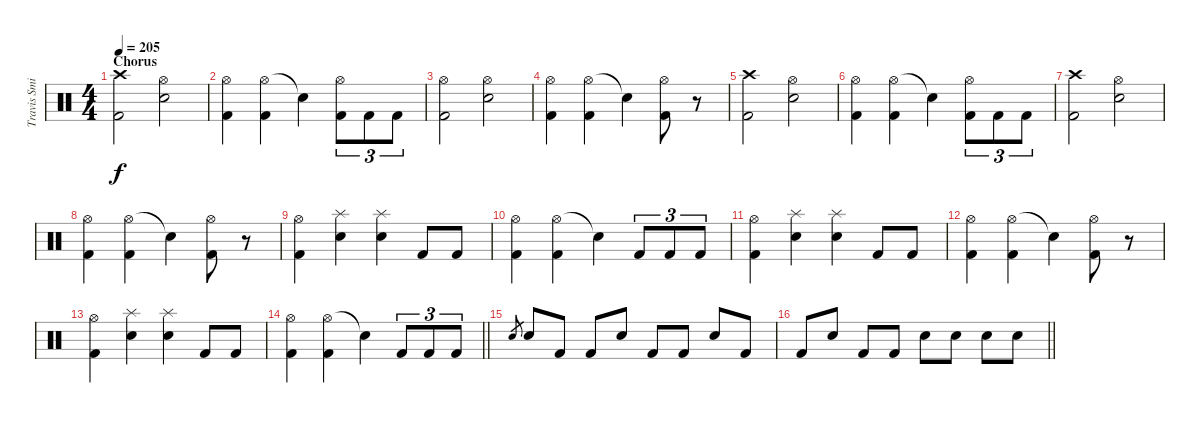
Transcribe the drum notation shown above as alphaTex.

\track ("Travis Smith" "Travis Smi") {instrument percussion}
\staff {score}
\articulation defaults
\ts (4 4)
\section ("" "Chorus")
\tempo 205
\clef neutral
\ks c
("Crash high (hit)" "Kick (hit) 2").2{dy f} ("Hi-Hat (open)" "Snare (hit) 2").2 |
("Hi-Hat (open)" "Kick (hit) 2").4 ("Hi-Hat (open)" "Kick (hit) 2").4 "Snare (hit)"{t}.4 ("Hi-Hat (open)" "Kick (hit) 2").8{tu (3 2)} "Kick (hit) 2".8{tu (3 2)} "Kick (hit) 2".8{tu (3 2)} |
("Hi-Hat (open)" "Kick (hit) 2").2 ("Hi-Hat (open)" "Snare (hit) 2").2 |
("Hi-Hat (open)" "Kick (hit) 2").4 ("Hi-Hat (open)" "Kick (hit) 2").4 "Snare (hit)"{t}.4 ("Hi-Hat (open)" "Kick (hit) 2").8 r.8 |
("Crash high (hit)" "Kick (hit) 2").2 ("Hi-Hat (open)" "Snare (hit) 2").2 |
("Hi-Hat (open)" "Kick (hit) 2").4 ("Hi-Hat (open)" "Kick (hit) 2").4 "Snare (hit)"{t}.4 ("Hi-Hat (open)" "Kick (hit) 2").8{tu (3 2)} "Kick (hit) 2".8{tu (3 2)} "Kick (hit) 2".8{tu (3 2)} |
("Crash high (hit)" "Kick (hit) 2").2 ("Hi-Hat (open)" "Snare (hit) 2").2 |
("Hi-Hat (open)" "Kick (hit) 2").4 ("Hi-Hat (open)" "Kick (hit) 2").4 "Snare (hit)"{t}.4 ("Hi-Hat (open)" "Kick (hit) 2").8 r.8 |
("Hi-Hat (open)" "Kick (hit) 2").4 ("Splash (hit)" "Snare (hit) 2").4 ("Splash (hit)" "Snare (hit) 2").4 "Kick (hit) 2".8 "Kick (hit) 2".8 |
("Hi-Hat (open)" "Kick (hit) 2").4 ("Hi-Hat (open)" "Kick (hit) 2").4 "Snare (hit)"{t}.4 "Kick (hit) 2".8{tu (3 2)} "Kick (hit) 2".8{tu (3 2)} "Kick (hit) 2".8{tu (3 2)} |
("Hi-Hat (open)" "Kick (hit) 2").4 ("Splash (hit)" "Snare (hit) 2").4 ("Splash (hit)" "Snare (hit) 2").4 "Kick (hit) 2".8 "Kick (hit) 2".8 |
("Hi-Hat (open)" "Kick (hit) 2").4 ("Hi-Hat (open)" "Kick (hit) 2").4 "Snare (hit)"{t}.4 ("Hi-Hat (open)" "Kick (hit) 2").8 r.8 |
("Hi-Hat (open)" "Kick (hit) 2").4 ("Splash (hit)" "Snare (hit) 2").4 ("Splash (hit)" "Snare (hit) 2").4 "Kick (hit) 2".8 "Kick (hit) 2".8 |
\barLineRight lightlight
("Hi-Hat (open)" "Kick (hit) 2").4 ("Hi-Hat (open)" "Kick (hit) 2").4 "Snare (hit)"{t}.4 "Kick (hit) 2".8{tu (3 2)} "Kick (hit) 2".8{tu (3 2)} "Kick (hit) 2".8{tu (3 2)} |
\section ("" "")
"Snare (hit) 2".8{gr} "Snare (hit) 2".8 "Kick (hit) 2".8 "Kick (hit) 2".8 "Snare (hit) 2".8 "Kick (hit) 2".8 "Kick (hit) 2".8 "Snare (hit) 2".8 "Kick (hit) 2".8 |
\barLineRight lightlight "Kick (hit) 2".8 "Snare (hit) 2".8 "Kick (hit) 2".8 "Kick (hit) 2".8 "Snare (hit) 2".8 "Snare (hit) 2".8 "Snare (hit) 2".8 "Snare (hit) 2".8
